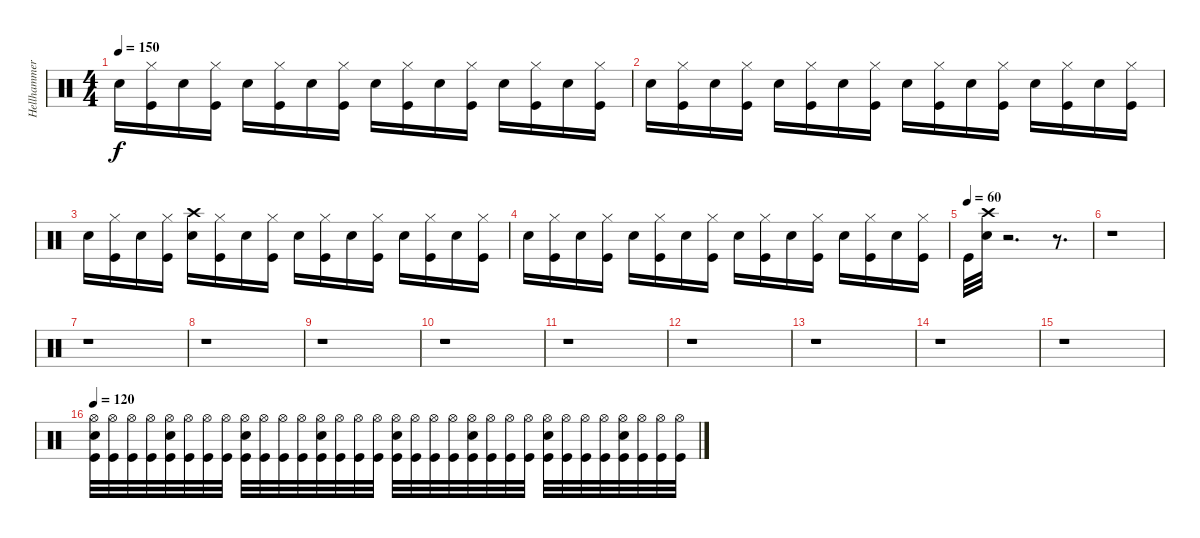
\track ("Hellhammer" "Hellhammer") {instrument percussion}
\staff {score}
\articulation defaults
\ts (4 4)
\tempo 150
\clef neutral
\ks c "Snare (hit) 2".16{dy f}
("Kick (hit)" "Hi-Hat (closed)").16 "Snare (hit) 2".16 ("Kick (hit)" "Hi-Hat (closed)").16 "Snare (hit) 2".16 ("Kick (hit)" "Hi-Hat (closed)").16 "Snare (hit) 2".16 ("Kick (hit)" "Hi-Hat (closed)").16 "Snare (hit) 2".16 ("Kick (hit)" "Hi-Hat (closed)").16 "Snare (hit) 2".16 ("Kick (hit)" "Hi-Hat (closed)").16 "Snare (hit) 2".16 ("Kick (hit)" "Hi-Hat (closed)").16 "Snare (hit) 2".16 ("Kick (hit)" "Hi-Hat (closed)").16 |
"Snare (hit) 2".16 ("Kick (hit)" "Hi-Hat (closed)").16 "Snare (hit) 2".16 ("Kick (hit)" "Hi-Hat (closed)").16 "Snare (hit) 2".16 ("Kick (hit)" "Hi-Hat (closed)").16 "Snare (hit) 2".16 ("Kick (hit)" "Hi-Hat (closed)").16 "Snare (hit) 2".16 ("Kick (hit)" "Hi-Hat (closed)").16 "Snare (hit) 2".16 ("Kick (hit)" "Hi-Hat (closed)").16 "Snare (hit) 2".16 ("Kick (hit)" "Hi-Hat (closed)").16 "Snare (hit) 2".16 ("Kick (hit)" "Hi-Hat (closed)").16 |
"Snare (hit) 2".16 ("Kick (hit)" "Hi-Hat (closed)").16 "Snare (hit) 2".16 ("Kick (hit)" "Hi-Hat (closed)").16 ("Snare (hit) 2" "Crash high (hit)").16 ("Kick (hit)" "Hi-Hat (closed)").16 "Snare (hit) 2".16 ("Kick (hit)" "Hi-Hat (closed)").16 "Snare (hit) 2".16 ("Kick (hit)" "Hi-Hat (closed)").16 "Snare (hit) 2".16 ("Kick (hit)" "Hi-Hat (closed)").16 "Snare (hit) 2".16 ("Kick (hit)" "Hi-Hat (closed)").16 "Snare (hit) 2".16 ("Kick (hit)" "Hi-Hat (closed)").16 |
"Snare (hit) 2".16 ("Kick (hit)" "Hi-Hat (closed)").16 "Snare (hit) 2".16 ("Kick (hit)" "Hi-Hat (closed)").16 "Snare (hit) 2".16 ("Kick (hit)" "Hi-Hat (closed)").16 "Snare (hit) 2".16 ("Kick (hit)" "Hi-Hat (closed)").16 "Snare (hit) 2".16 ("Kick (hit)" "Hi-Hat (closed)").16 "Snare (hit) 2".16 ("Kick (hit)" "Hi-Hat (closed)").16 "Snare (hit) 2".16 ("Kick (hit)" "Hi-Hat (closed)").16 "Snare (hit) 2".16 ("Kick (hit)" "Hi-Hat (closed)").16 |
\tempo (60)
"Kick (hit)".32 ("Snare (hit) 2" "Crash high (hit)").32 r.2{d} r.8{d} |
r.1 |
r.1 |
r.1 |
r.1 |
r.1 |
r.1 |
r.1 |
r.1 |
r.1 |
r.1 |
\tempo 120
("Kick (hit)" "Snare (hit) 2" "Hi-Hat (open)").32 ("Kick (hit)" "Hi-Hat (open)").32 ("Kick (hit)" "Hi-Hat (open)").32 ("Kick (hit)" "Hi-Hat (open)").32 ("Kick (hit)" "Snare (hit) 2" "Hi-Hat (open)").32 ("Kick (hit)" "Hi-Hat (open)").32 ("Kick (hit)" "Hi-Hat (open)").32 ("Kick (hit)" "Hi-Hat (open)").32 ("Kick (hit)" "Snare (hit) 2" "Hi-Hat (open)").32 ("Kick (hit)" "Hi-Hat (open)").32 ("Kick (hit)" "Hi-Hat (open)").32 ("Kick (hit)" "Hi-Hat (open)").32 ("Kick (hit)" "Snare (hit) 2" "Hi-Hat (open)").32 ("Kick (hit)" "Hi-Hat (open)").32 ("Kick (hit)" "Hi-Hat (open)").32 ("Kick (hit)" "Hi-Hat (open)").32 ("Kick (hit)" "Snare (hit) 2" "Hi-Hat (open)").32 ("Kick (hit)" "Hi-Hat (open)").32 ("Kick (hit)" "Hi-Hat (open)").32 ("Kick (hit)" "Hi-Hat (open)").32 ("Kick (hit)" "Snare (hit) 2" "Hi-Hat (open)").32 ("Kick (hit)" "Hi-Hat (open)").32 ("Kick (hit)" "Hi-Hat (open)").32 ("Kick (hit)" "Hi-Hat (open)").32 ("Kick (hit)" "Snare (hit) 2" "Hi-Hat (open)").32 ("Kick (hit)" "Hi-Hat (open)").32 ("Kick (hit)" "Hi-Hat (open)").32 ("Kick (hit)" "Hi-Hat (open)").32 ("Kick (hit)" "Snare (hit) 2" "Hi-Hat (open)").32 ("Kick (hit)" "Hi-Hat (open)").32 ("Kick (hit)" "Hi-Hat (open)").32 ("Kick (hit)" "Hi-Hat (open)").32
